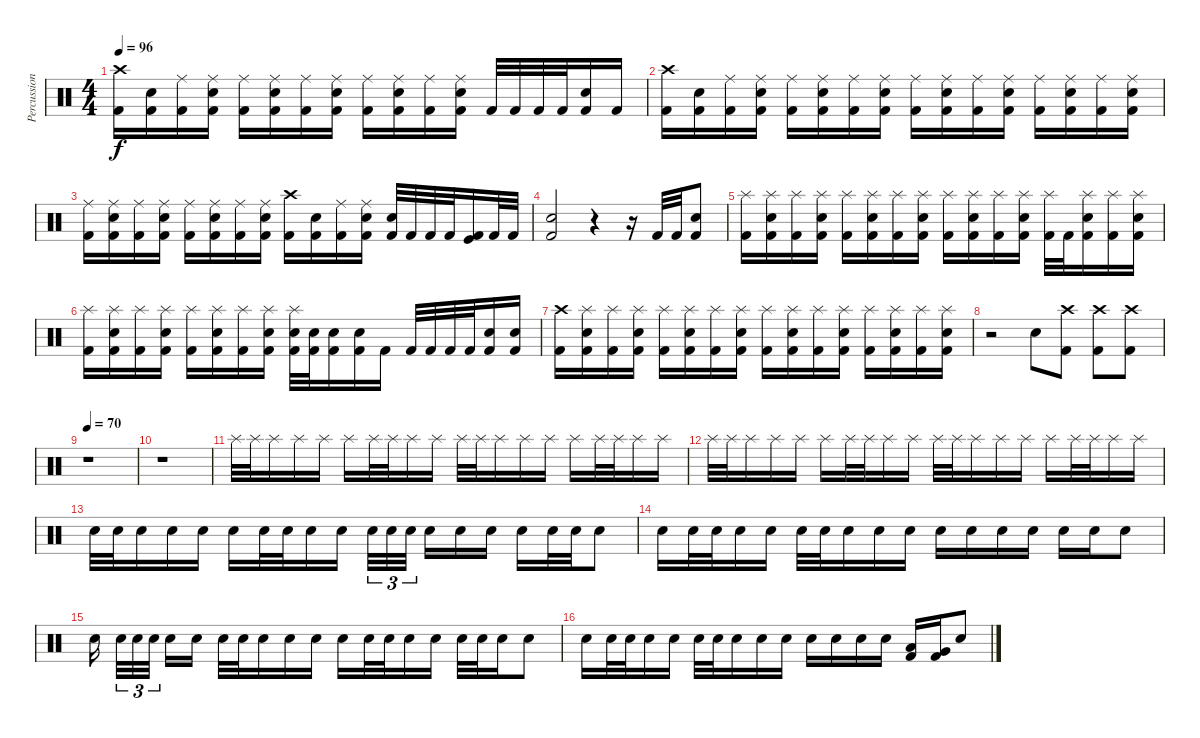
\track ("Percussion" "Percussion") {instrument percussion}
\staff {score}
\articulation defaults
\ts (4 4)
\tempo 96
\clef neutral
\ks c
("Crash high (hit)" "Kick (hit) 2").16{dy f} ("Snare (hit) 2" "Kick (hit) 2").16 ("Ride (middle)" "Kick (hit) 2").16 ("Ride (middle)" "Snare (hit) 2" "Kick (hit) 2").16 ("Ride (middle)" "Kick (hit) 2").16 ("Ride (middle)" "Snare (hit) 2" "Kick (hit) 2").16 ("Ride (middle)" "Kick (hit) 2").16 ("Ride (middle)" "Snare (hit) 2" "Kick (hit) 2").16 ("Ride (middle)" "Kick (hit) 2").16 ("Ride (middle)" "Snare (hit) 2" "Kick (hit) 2").16 ("Ride (middle)" "Kick (hit) 2").16 ("Ride (middle)" "Snare (hit) 2" "Kick (hit) 2").16 "Kick (hit) 2".32 "Kick (hit) 2".32 "Kick (hit) 2".32 "Kick (hit) 2".32 ("Snare (hit) 2" "Kick (hit) 2").16 "Kick (hit) 2".16 |
("Crash high (hit)" "Kick (hit) 2").16 ("Snare (hit) 2" "Kick (hit) 2").16 ("Ride (middle)" "Kick (hit) 2").16 ("Ride (middle)" "Snare (hit) 2" "Kick (hit) 2").16 ("Ride (middle)" "Kick (hit) 2").16 ("Ride (middle)" "Snare (hit) 2" "Kick (hit) 2").16 ("Ride (middle)" "Kick (hit) 2").16 ("Ride (middle)" "Snare (hit) 2" "Kick (hit) 2").16 ("Ride (middle)" "Kick (hit) 2").16 ("Ride (middle)" "Snare (hit) 2" "Kick (hit) 2").16 ("Ride (middle)" "Kick (hit) 2").16 ("Ride (middle)" "Snare (hit) 2" "Kick (hit) 2").16 ("Ride (middle)" "Kick (hit) 2").16 ("Ride (middle)" "Snare (hit) 2" "Kick (hit) 2").16 ("Ride (middle)" "Kick (hit) 2").16 ("Ride (middle)" "Snare (hit) 2" "Kick (hit) 2").16 |
("Ride (middle)" "Kick (hit) 2").16 ("Ride (middle)" "Snare (hit) 2" "Kick (hit) 2").16 ("Ride (middle)" "Kick (hit) 2").16 ("Ride (middle)" "Snare (hit) 2" "Kick (hit) 2").16 ("Ride (middle)" "Kick (hit) 2").16 ("Ride (middle)" "Snare (hit) 2" "Kick (hit) 2").16 ("Ride (middle)" "Kick (hit) 2").16 ("Ride (middle)" "Snare (hit) 2" "Kick (hit) 2").16 ("Crash high (hit)" "Kick (hit) 2").16 ("Snare (hit) 2" "Kick (hit) 2").16 ("Ride (middle)" "Kick (hit) 2").16 ("Ride (middle)" "Snare (hit) 2" "Kick (hit) 2").16 ("Snare (hit) 2" "Kick (hit) 2").32 "Kick (hit) 2".32 "Kick (hit) 2".32 "Kick (hit) 2".32 ("Kick (hit)" "Kick (hit) 2").16 "Kick (hit) 2".32 "Kick (hit) 2".32 |
("Snare (hit) 2" "Kick (hit) 2").2 r.4 r.16 "Kick (hit) 2".32 "Kick (hit) 2".32 ("Snare (hit) 2" "Kick (hit) 2").8 |
("Splash (hit)" "Kick (hit) 2").16 ("Splash (hit)" "Snare (hit) 2" "Kick (hit) 2").16 ("Splash (hit)" "Kick (hit) 2").16 ("Splash (hit)" "Snare (hit) 2" "Kick (hit) 2").16 ("Splash (hit)" "Kick (hit) 2").16 ("Splash (hit)" "Snare (hit) 2" "Kick (hit) 2").16 ("Splash (hit)" "Kick (hit) 2").16 ("Splash (hit)" "Snare (hit) 2" "Kick (hit) 2").16 ("Splash (hit)" "Kick (hit) 2").16 ("Splash (hit)" "Snare (hit) 2" "Kick (hit) 2").16 ("Splash (hit)" "Kick (hit) 2").16 ("Splash (hit)" "Snare (hit) 2" "Kick (hit) 2").16 ("Splash (hit)" "Kick (hit) 2").32 "Kick (hit) 2".32 ("Splash (hit)" "Snare (hit) 2" "Kick (hit) 2").16 ("Splash (hit)" "Kick (hit) 2").16 ("Splash (hit)" "Snare (hit) 2" "Kick (hit) 2").16 |
("Splash (hit)" "Kick (hit) 2").16 ("Splash (hit)" "Snare (hit) 2" "Kick (hit) 2").16 ("Splash (hit)" "Kick (hit) 2").16 ("Splash (hit)" "Snare (hit) 2" "Kick (hit) 2").16 ("Splash (hit)" "Kick (hit) 2").16 ("Splash (hit)" "Snare (hit) 2" "Kick (hit) 2").16 ("Splash (hit)" "Kick (hit) 2").16 ("Splash (hit)" "Snare (hit) 2" "Kick (hit) 2").16 ("Splash (hit)" "Snare (hit) 2" "Kick (hit) 2").32 ("Snare (hit) 2" "Kick (hit) 2").32 ("Snare (hit) 2" "Kick (hit) 2").16 ("Snare (hit) 2" "Kick (hit) 2").16 "Kick (hit) 2".16 "Kick (hit) 2".32 "Kick (hit) 2".32 "Kick (hit) 2".32 "Kick (hit) 2".32 ("Snare (hit) 2" "Kick (hit) 2").16 ("Snare (hit) 2" "Kick (hit) 2").16 |
("Crash high (hit)" "Kick (hit) 2").16 ("Splash (hit)" "Snare (hit) 2" "Kick (hit) 2").16 ("Splash (hit)" "Kick (hit) 2").16 ("Splash (hit)" "Snare (hit) 2" "Kick (hit) 2").16 ("Splash (hit)" "Kick (hit) 2").16 ("Splash (hit)" "Snare (hit) 2" "Kick (hit) 2").16 ("Splash (hit)" "Kick (hit) 2").16 ("Splash (hit)" "Snare (hit) 2" "Kick (hit) 2").16 ("Splash (hit)" "Kick (hit) 2").16 ("Splash (hit)" "Snare (hit) 2" "Kick (hit) 2").16 ("Splash (hit)" "Kick (hit) 2").16 ("Splash (hit)" "Snare (hit) 2" "Kick (hit) 2").16 ("Splash (hit)" "Kick (hit) 2").16 ("Splash (hit)" "Snare (hit) 2" "Kick (hit) 2").16 ("Splash (hit)" "Kick (hit) 2").16 ("Splash (hit)" "Snare (hit) 2" "Kick (hit) 2").16 |
r.2 "Snare (hit) 2".8 ("Crash high (hit)" "Kick (hit) 2").8 ("Crash high (hit)" "Kick (hit) 2").8 ("Crash high (hit)" "Kick (hit) 2").8 |
\tempo 70
r.1 |
r.1 |
"Splash (hit)".32 "Splash (hit)".32 "Splash (hit)".16 "Splash (hit)".16 "Splash (hit)".16 "Splash (hit)".16 "Splash (hit)".32 "Splash (hit)".32 "Splash (hit)".16 "Splash (hit)".16 "Splash (hit)".32 "Splash (hit)".32 "Splash (hit)".16 "Splash (hit)".16 "Splash (hit)".16 "Splash (hit)".16 "Splash (hit)".32 "Splash (hit)".32 "Splash (hit)".16 "Splash (hit)".16 |
"Splash (hit)".32 "Splash (hit)".32 "Splash (hit)".16 "Splash (hit)".16 "Splash (hit)".16 "Splash (hit)".16 "Splash (hit)".32 "Splash (hit)".32 "Splash (hit)".16 "Splash (hit)".16 "Splash (hit)".32 "Splash (hit)".32 "Splash (hit)".16 "Splash (hit)".16 "Splash (hit)".16 "Splash (hit)".16 "Splash (hit)".32 "Splash (hit)".32 "Splash (hit)".16 "Splash (hit)".16 |
"Snare (hit) 2".32 "Snare (hit) 2".32 "Snare (hit) 2".16 "Snare (hit) 2".16 "Snare (hit) 2".16 "Snare (hit) 2".16 "Snare (hit) 2".32 "Snare (hit) 2".32 "Snare (hit) 2".16 "Snare (hit) 2".16 "Snare (hit) 2".32{tu (3 2)} "Snare (hit) 2".32{tu (3 2)} "Snare (hit) 2".32{tu (3 2)} "Snare (hit) 2".16 "Snare (hit) 2".16 "Snare (hit) 2".16 "Snare (hit) 2".16 "Snare (hit) 2".32 "Snare (hit) 2".32 "Snare (hit) 2".8 |
"Snare (hit) 2".16 "Snare (hit) 2".32 "Snare (hit) 2".32 "Snare (hit) 2".16 "Snare (hit) 2".16 "Snare (hit) 2".32 "Snare (hit) 2".32 "Snare (hit) 2".16 "Snare (hit) 2".16 "Snare (hit) 2".16 "Snare (hit) 2".16 "Snare (hit) 2".16 "Snare (hit) 2".16 "Snare (hit) 2".16 "Snare (hit) 2".16 "Snare (hit) 2".16 "Snare (hit) 2".8 |
"Snare (hit) 2".16 "Snare (hit) 2".32{tu (3 2)} "Snare (hit) 2".32{tu (3 2)} "Snare (hit) 2".32{tu (3 2)} "Snare (hit) 2".16 "Snare (hit) 2".16 "Snare (hit) 2".32 "Snare (hit) 2".32 "Snare (hit) 2".16 "Snare (hit) 2".16 "Snare (hit) 2".16 "Snare (hit) 2".16 "Snare (hit) 2".32 "Snare (hit) 2".32 "Snare (hit) 2".16 "Snare (hit) 2".16 "Snare (hit) 2".32 "Snare (hit) 2".32 "Snare (hit) 2".16 "Snare (hit) 2".8 |
"Snare (hit) 2".16 "Snare (hit) 2".32 "Snare (hit) 2".32 "Snare (hit) 2".16 "Snare (hit) 2".16 "Snare (hit) 2".32 "Snare (hit) 2".32 "Snare (hit) 2".16 "Snare (hit) 2".16 "Snare (hit) 2".16 "Snare (hit) 2".16 "Snare (hit) 2".16 "Snare (hit) 2".16 "Snare (hit) 2".16 ("Kick (hit) 2" "Low Tom (hit)").16 ("Kick (hit) 2" "Very Low Tom (hit)").16 "Snare (hit) 2".8
